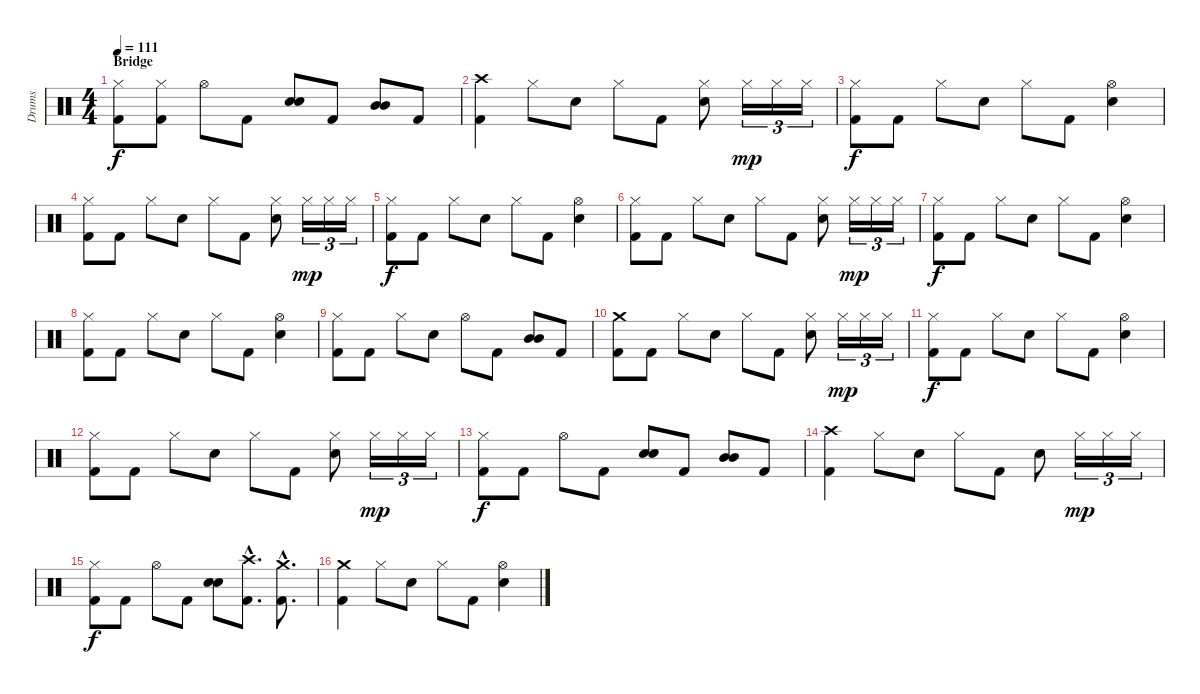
\track ("Drums" "Drums") {instrument percussion}
\staff {score}
\articulation defaults
\ts (4 4)
\section ("" "Bridge")
\tempo 111
\clef neutral
\ks c
("Hi-Hat (closed)" "Kick (hit) 2").8{dy f} ("Hi-Hat (closed)" "Kick (hit) 2").8 "Hi-Hat (open)".8 "Kick (hit) 2".8 ("Electric Snare (hit)" "Electric Snare (hit)").8{bd 120} "Kick (hit) 2".8 ("Mid Tom (hit)" "Mid Tom (hit)").8{bd 120} "Kick (hit) 2".8 |
("Crash high (hit)" "Kick (hit) 2").4 "Hi-Hat (closed)".8 "Electric Snare (hit)".8 "Hi-Hat (closed)".8 "Kick (hit) 2".8 ("Hi-Hat (closed)" "Electric Snare (hit)").8 "Hi-Hat (closed)".16{tu (3 2) dy mp} "Hi-Hat (closed)".16{tu (3 2)} "Hi-Hat (closed)".16{tu (3 2)} |
("Hi-Hat (closed)" "Kick (hit) 2").8{dy f} "Kick (hit) 2".8 "Hi-Hat (closed)".8 "Electric Snare (hit)".8 "Hi-Hat (closed)".8 "Kick (hit) 2".8 ("Hi-Hat (open)" "Electric Snare (hit)").4 |
("Hi-Hat (closed)" "Kick (hit) 2").8 "Kick (hit) 2".8 "Hi-Hat (closed)".8 "Electric Snare (hit)".8 "Hi-Hat (closed)".8 "Kick (hit) 2".8 ("Hi-Hat (closed)" "Electric Snare (hit)").8 "Hi-Hat (closed)".16{tu (3 2) dy mp} "Hi-Hat (closed)".16{tu (3 2)} "Hi-Hat (closed)".16{tu (3 2)} |
("Hi-Hat (closed)" "Kick (hit) 2").8{dy f} "Kick (hit) 2".8 "Hi-Hat (closed)".8 "Electric Snare (hit)".8 "Hi-Hat (closed)".8 "Kick (hit) 2".8 ("Hi-Hat (open)" "Electric Snare (hit)").4 |
("Hi-Hat (closed)" "Kick (hit) 2").8 "Kick (hit) 2".8 "Hi-Hat (closed)".8 "Electric Snare (hit)".8 "Hi-Hat (closed)".8 "Kick (hit) 2".8 ("Hi-Hat (closed)" "Electric Snare (hit)").8 "Hi-Hat (closed)".16{tu (3 2) dy mp} "Hi-Hat (closed)".16{tu (3 2)} "Hi-Hat (closed)".16{tu (3 2)} |
("Hi-Hat (closed)" "Kick (hit) 2").8{dy f} "Kick (hit) 2".8 "Hi-Hat (closed)".8 "Electric Snare (hit)".8 "Hi-Hat (closed)".8 "Kick (hit) 2".8 ("Hi-Hat (open)" "Electric Snare (hit)").4 |
("Hi-Hat (closed)" "Kick (hit) 2").8 "Kick (hit) 2".8 "Hi-Hat (closed)".8 "Electric Snare (hit)".8 "Hi-Hat (closed)".8 "Kick (hit) 2".8 ("Hi-Hat (open)" "Electric Snare (hit)").4 |
("Hi-Hat (closed)" "Kick (hit) 2").8 "Kick (hit) 2".8 "Hi-Hat (closed)".8 "Electric Snare (hit)".8 "Hi-Hat (open)".8 "Kick (hit) 2".8 ("Mid Tom (hit)" "Mid Tom (hit)").8{bd 120} "Kick (hit) 2".8 |
("Crash medium (hit)" "Kick (hit) 2").8 "Kick (hit) 2".8 "Hi-Hat (closed)".8 "Electric Snare (hit)".8 "Hi-Hat (closed)".8 "Kick (hit) 2".8 ("Hi-Hat (closed)" "Electric Snare (hit)").8 "Hi-Hat (closed)".16{tu (3 2) dy mp} "Hi-Hat (closed)".16{tu (3 2)} "Hi-Hat (closed)".16{tu (3 2)} |
("Hi-Hat (closed)" "Kick (hit) 2").8{dy f} "Kick (hit) 2".8 "Hi-Hat (closed)".8 "Electric Snare (hit)".8 "Hi-Hat (closed)".8 "Kick (hit) 2".8 ("Hi-Hat (open)" "Electric Snare (hit)").4 |
("Hi-Hat (closed)" "Kick (hit) 2").8 "Kick (hit) 2".8 "Hi-Hat (closed)".8 "Electric Snare (hit)".8 "Hi-Hat (closed)".8 "Kick (hit) 2".8 ("Hi-Hat (closed)" "Electric Snare (hit)").8 "Hi-Hat (closed)".16{tu (3 2) dy mp} "Hi-Hat (closed)".16{tu (3 2)} "Hi-Hat (closed)".16{tu (3 2)} |
("Hi-Hat (closed)" "Kick (hit) 2").8{dy f} "Kick (hit) 2".8 "Hi-Hat (open)".8 "Kick (hit) 2".8 ("Electric Snare (hit)" "Electric Snare (hit)").8{bd 120} "Kick (hit) 2".8 ("Mid Tom (hit)" "Mid Tom (hit)").8{bd 120} "Kick (hit) 2".8 |
("Crash high (hit)" "Kick (hit) 2").4 "Hi-Hat (closed)".8 "Electric Snare (hit)".8 "Hi-Hat (closed)".8 "Kick (hit) 2".8 "Electric Snare (hit)".8 "Hi-Hat (closed)".16{tu (3 2) dy mp} "Hi-Hat (closed)".16{tu (3 2)} "Hi-Hat (closed)".16{tu (3 2)} |
("Hi-Hat (closed)" "Kick (hit) 2").8{dy f} "Kick (hit) 2".8 "Hi-Hat (open)".8 "Kick (hit) 2".8 ("Electric Snare (hit)" "Electric Snare (hit)").8{bd 120} ("Crash high (hit)"{hac} "Kick (hit) 2"{hac}).8{d} ("Crash medium (hit)"{hac} "Kick (hit) 2"{hac}).8{d} |
("Crash medium (hit)" "Kick (hit) 2").4 "Hi-Hat (closed)".8 "Electric Snare (hit)".8 "Hi-Hat (closed)".8 "Kick (hit) 2".8 ("Hi-Hat (open)" "Electric Snare (hit)").4
